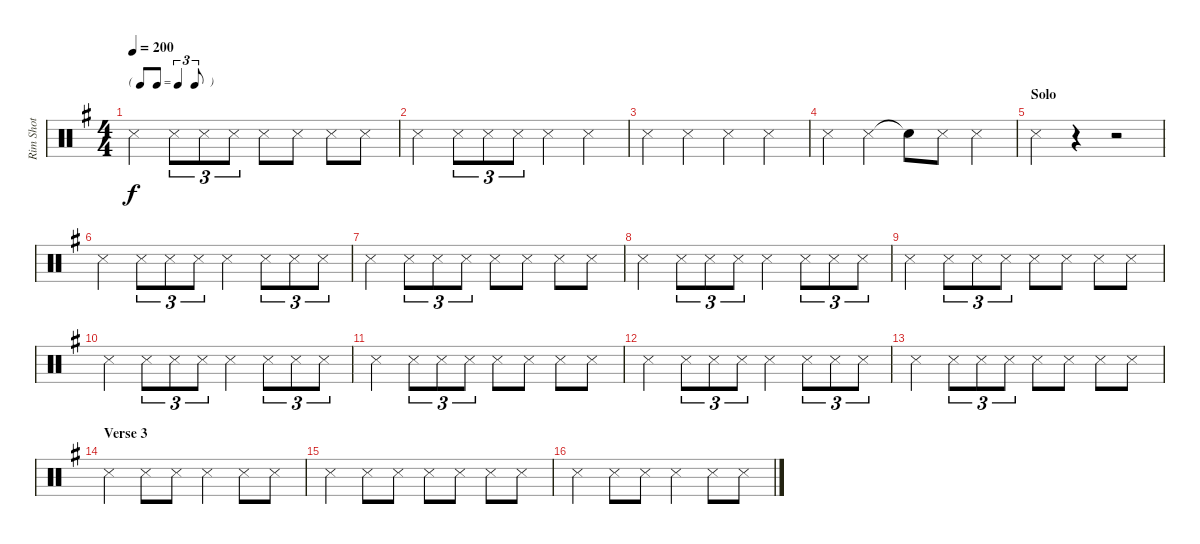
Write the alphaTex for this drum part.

\track ("Rim Shot" "Rim Shot") {instrument percussion}
\staff {score}
\articulation defaults
\ts (4 4)
\tf triplet8th
\tempo 200
\clef neutral
\ks g "Snare (side stick) 3".4{dy f} "Snare (side stick) 3".8{tu (3 2)} "Snare (side stick) 3".8{tu (3 2)} "Snare (side stick) 3".8{tu (3 2)} "Snare (side stick) 3".8 "Snare (side stick) 3".8 "Snare (side stick) 3".8 "Snare (side stick) 3".8
|
"Snare (side stick) 3".4 "Snare (side stick) 3".8{tu (3 2)} "Snare (side stick) 3".8{tu (3 2)} "Snare (side stick) 3".8{tu (3 2)} "Snare (side stick) 3".4 "Snare (side stick) 3".4 |
"Snare (side stick) 3".4 "Snare (side stick) 3".4 "Snare (side stick) 3".4 "Snare (side stick) 3".4 |
"Snare (side stick) 3".4 "Snare (side stick) 3".4 "Snare (hit)"{t}.8 "Snare (side stick) 3".8 "Snare (side stick) 3".4 |
\section ("" "Solo")
"Snare (side stick) 3".4 r.4 r.2 |
"Snare (side stick) 3".4 "Snare (side stick) 3".8{tu (3 2)} "Snare (side stick) 3".8{tu (3 2)} "Snare (side stick) 3".8{tu (3 2)} "Snare (side stick) 3".4 "Snare (side stick) 3".8{tu (3 2)} "Snare (side stick) 3".8{tu (3 2)} "Snare (side stick) 3".8{tu (3 2)} |
"Snare (side stick) 3".4 "Snare (side stick) 3".8{tu (3 2)} "Snare (side stick) 3".8{tu (3 2)} "Snare (side stick) 3".8{tu (3 2)} "Snare (side stick) 3".8 "Snare (side stick) 3".8 "Snare (side stick) 3".8 "Snare (side stick) 3".8 |
"Snare (side stick) 3".4 "Snare (side stick) 3".8{tu (3 2)} "Snare (side stick) 3".8{tu (3 2)} "Snare (side stick) 3".8{tu (3 2)} "Snare (side stick) 3".4 "Snare (side stick) 3".8{tu (3 2)} "Snare (side stick) 3".8{tu (3 2)} "Snare (side stick) 3".8{tu (3 2)} |
"Snare (side stick) 3".4 "Snare (side stick) 3".8{tu (3 2)} "Snare (side stick) 3".8{tu (3 2)} "Snare (side stick) 3".8{tu (3 2)} "Snare (side stick) 3".8 "Snare (side stick) 3".8 "Snare (side stick) 3".8 "Snare (side stick) 3".8 |
"Snare (side stick) 3".4 "Snare (side stick) 3".8{tu (3 2)} "Snare (side stick) 3".8{tu (3 2)} "Snare (side stick) 3".8{tu (3 2)} "Snare (side stick) 3".4 "Snare (side stick) 3".8{tu (3 2)} "Snare (side stick) 3".8{tu (3 2)} "Snare (side stick) 3".8{tu (3 2)} |
"Snare (side stick) 3".4 "Snare (side stick) 3".8{tu (3 2)} "Snare (side stick) 3".8{tu (3 2)} "Snare (side stick) 3".8{tu (3 2)} "Snare (side stick) 3".8 "Snare (side stick) 3".8 "Snare (side stick) 3".8 "Snare (side stick) 3".8 |
"Snare (side stick) 3".4 "Snare (side stick) 3".8{tu (3 2)} "Snare (side stick) 3".8{tu (3 2)} "Snare (side stick) 3".8{tu (3 2)} "Snare (side stick) 3".4 "Snare (side stick) 3".8{tu (3 2)} "Snare (side stick) 3".8{tu (3 2)} "Snare (side stick) 3".8{tu (3 2)} |
"Snare (side stick) 3".4 "Snare (side stick) 3".8{tu (3 2)} "Snare (side stick) 3".8{tu (3 2)} "Snare (side stick) 3".8{tu (3 2)} "Snare (side stick) 3".8 "Snare (side stick) 3".8 "Snare (side stick) 3".8 "Snare (side stick) 3".8 |
\section ("" "Verse 3")
"Snare (side stick) 3".4 "Snare (side stick) 3".8 "Snare (side stick) 3".8 "Snare (side stick) 3".4 "Snare (side stick) 3".8 "Snare (side stick) 3".8 |
"Snare (side stick) 3".4 "Snare (side stick) 3".8 "Snare (side stick) 3".8 "Snare (side stick) 3".8 "Snare (side stick) 3".8 "Snare (side stick) 3".8 "Snare (side stick) 3".8 |
"Snare (side stick) 3".4 "Snare (side stick) 3".8 "Snare (side stick) 3".8 "Snare (side stick) 3".4 "Snare (side stick) 3".8 "Snare (side stick) 3".8
